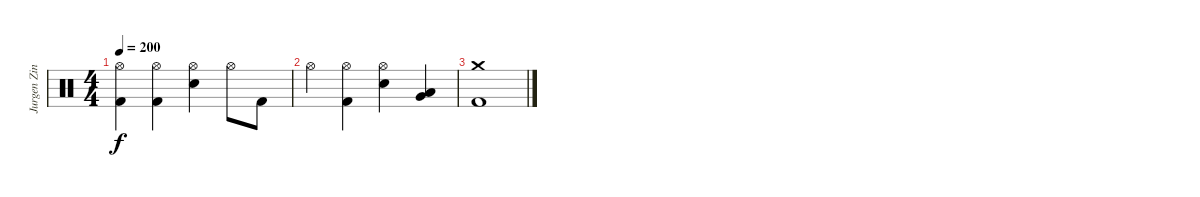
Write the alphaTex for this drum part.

\track ("Jurgen Zink" "Jurgen Zin") {instrument percussion}
\staff {score}
\articulation defaults
\ts (4 4)
\tempo 200
\clef neutral
\ks c
("Hi-Hat (open)" "Kick (hit) 2").4{dy f} ("Hi-Hat (open)" "Kick (hit) 2").4 ("Hi-Hat (open)" "Electric Snare (hit)").4 "Hi-Hat (open)".8 "Kick (hit) 2".8 |
"Hi-Hat (open)".4 ("Hi-Hat (open)" "Kick (hit) 2").4 ("Hi-Hat (open)" "Electric Snare (hit)").4 ("Very Low Tom (hit)" "Low Floor Tom (hit)").4 |
("Crash medium (hit)" "Kick (hit) 2").1
